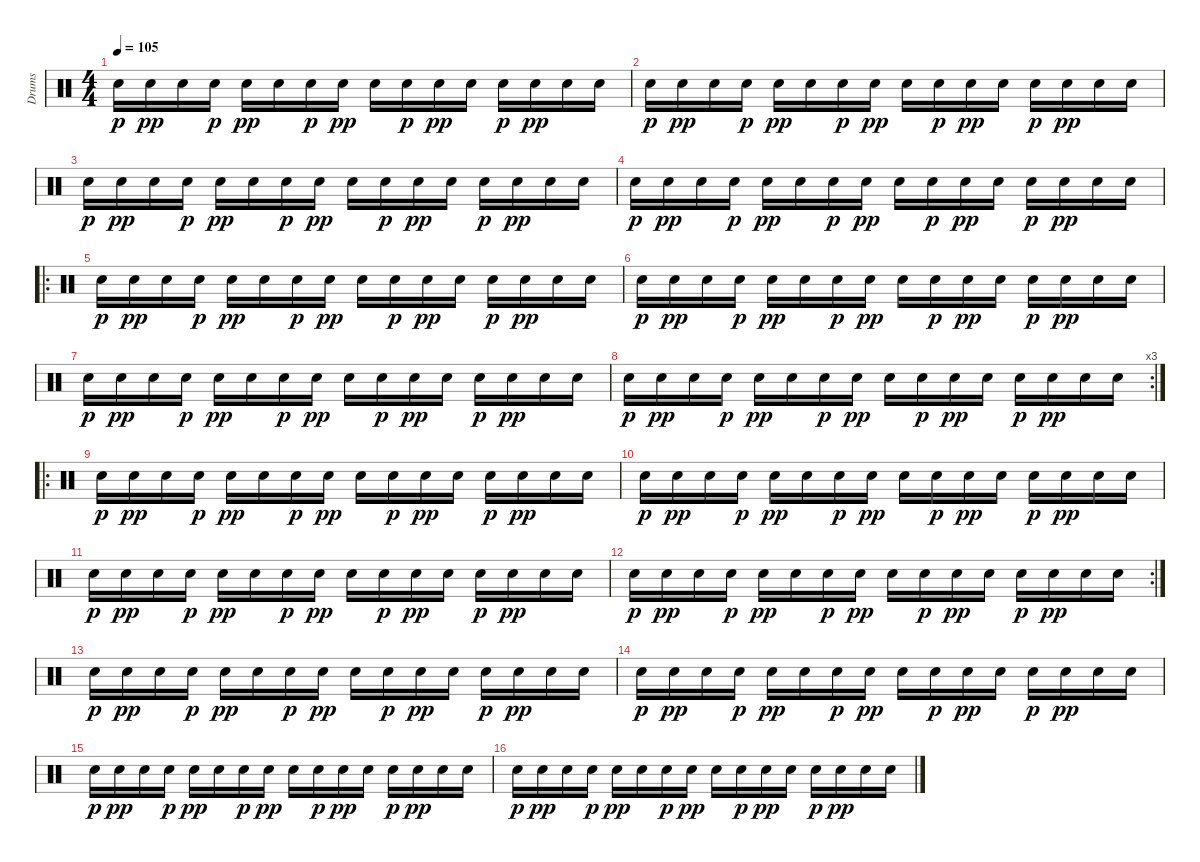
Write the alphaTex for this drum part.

\track ("Drums" "Drums") {instrument percussion}
\staff {score}
\articulation defaults
\ts (4 4)
\tempo 105
\clef neutral
\ks c "Electric Snare (hit)".16{dy p} "Electric Snare (hit)".16{dy pp} "Electric Snare (hit)".16 "Electric Snare (hit)".16{dy p} "Electric Snare (hit)".16{dy pp} "Electric Snare (hit)".16 "Electric Snare (hit)".16{dy p} "Electric Snare (hit)".16{dy pp} "Electric Snare (hit)".16 "Electric Snare (hit)".16{dy p} "Electric Snare (hit)".16{dy pp} "Electric Snare (hit)".16 "Electric Snare (hit)".16{dy p} "Electric Snare (hit)".16{dy pp} "Electric Snare (hit)".16 "Electric Snare (hit)".16
|
"Electric Snare (hit)".16{dy p} "Electric Snare (hit)".16{dy pp} "Electric Snare (hit)".16 "Electric Snare (hit)".16{dy p} "Electric Snare (hit)".16{dy pp} "Electric Snare (hit)".16 "Electric Snare (hit)".16{dy p} "Electric Snare (hit)".16{dy pp} "Electric Snare (hit)".16 "Electric Snare (hit)".16{dy p} "Electric Snare (hit)".16{dy pp} "Electric Snare (hit)".16 "Electric Snare (hit)".16{dy p} "Electric Snare (hit)".16{dy pp} "Electric Snare (hit)".16 "Electric Snare (hit)".16 |
"Electric Snare (hit)".16{dy p} "Electric Snare (hit)".16{dy pp} "Electric Snare (hit)".16 "Electric Snare (hit)".16{dy p} "Electric Snare (hit)".16{dy pp} "Electric Snare (hit)".16 "Electric Snare (hit)".16{dy p} "Electric Snare (hit)".16{dy pp} "Electric Snare (hit)".16 "Electric Snare (hit)".16{dy p} "Electric Snare (hit)".16{dy pp} "Electric Snare (hit)".16 "Electric Snare (hit)".16{dy p} "Electric Snare (hit)".16{dy pp} "Electric Snare (hit)".16 "Electric Snare (hit)".16 |
"Electric Snare (hit)".16{dy p} "Electric Snare (hit)".16{dy pp} "Electric Snare (hit)".16 "Electric Snare (hit)".16{dy p} "Electric Snare (hit)".16{dy pp} "Electric Snare (hit)".16 "Electric Snare (hit)".16{dy p} "Electric Snare (hit)".16{dy pp} "Electric Snare (hit)".16 "Electric Snare (hit)".16{dy p} "Electric Snare (hit)".16{dy pp} "Electric Snare (hit)".16 "Electric Snare (hit)".16{dy p} "Electric Snare (hit)".16{dy pp} "Electric Snare (hit)".16 "Electric Snare (hit)".16 |
\ro "Electric Snare (hit)".16{dy p} "Electric Snare (hit)".16{dy pp} "Electric Snare (hit)".16 "Electric Snare (hit)".16{dy p} "Electric Snare (hit)".16{dy pp} "Electric Snare (hit)".16 "Electric Snare (hit)".16{dy p} "Electric Snare (hit)".16{dy pp} "Electric Snare (hit)".16 "Electric Snare (hit)".16{dy p} "Electric Snare (hit)".16{dy pp} "Electric Snare (hit)".16 "Electric Snare (hit)".16{dy p} "Electric Snare (hit)".16{dy pp} "Electric Snare (hit)".16 "Electric Snare (hit)".16
|
"Electric Snare (hit)".16{dy p} "Electric Snare (hit)".16{dy pp} "Electric Snare (hit)".16 "Electric Snare (hit)".16{dy p} "Electric Snare (hit)".16{dy pp} "Electric Snare (hit)".16 "Electric Snare (hit)".16{dy p} "Electric Snare (hit)".16{dy pp} "Electric Snare (hit)".16 "Electric Snare (hit)".16{dy p} "Electric Snare (hit)".16{dy pp} "Electric Snare (hit)".16 "Electric Snare (hit)".16{dy p} "Electric Snare (hit)".16{dy pp} "Electric Snare (hit)".16 "Electric Snare (hit)".16 |
"Electric Snare (hit)".16{dy p} "Electric Snare (hit)".16{dy pp} "Electric Snare (hit)".16 "Electric Snare (hit)".16{dy p} "Electric Snare (hit)".16{dy pp} "Electric Snare (hit)".16 "Electric Snare (hit)".16{dy p} "Electric Snare (hit)".16{dy pp} "Electric Snare (hit)".16 "Electric Snare (hit)".16{dy p} "Electric Snare (hit)".16{dy pp} "Electric Snare (hit)".16 "Electric Snare (hit)".16{dy p} "Electric Snare (hit)".16{dy pp} "Electric Snare (hit)".16 "Electric Snare (hit)".16 |
\rc 3 "Electric Snare (hit)".16{dy p} "Electric Snare (hit)".16{dy pp} "Electric Snare (hit)".16 "Electric Snare (hit)".16{dy p} "Electric Snare (hit)".16{dy pp} "Electric Snare (hit)".16 "Electric Snare (hit)".16{dy p} "Electric Snare (hit)".16{dy pp} "Electric Snare (hit)".16 "Electric Snare (hit)".16{dy p} "Electric Snare (hit)".16{dy pp} "Electric Snare (hit)".16 "Electric Snare (hit)".16{dy p} "Electric Snare (hit)".16{dy pp} "Electric Snare (hit)".16 "Electric Snare (hit)".16
|
\ro "Electric Snare (hit)".16{dy p} "Electric Snare (hit)".16{dy pp} "Electric Snare (hit)".16 "Electric Snare (hit)".16{dy p} "Electric Snare (hit)".16{dy pp} "Electric Snare (hit)".16 "Electric Snare (hit)".16{dy p} "Electric Snare (hit)".16{dy pp} "Electric Snare (hit)".16 "Electric Snare (hit)".16{dy p} "Electric Snare (hit)".16{dy pp} "Electric Snare (hit)".16 "Electric Snare (hit)".16{dy p} "Electric Snare (hit)".16{dy pp} "Electric Snare (hit)".16 "Electric Snare (hit)".16
|
"Electric Snare (hit)".16{dy p} "Electric Snare (hit)".16{dy pp} "Electric Snare (hit)".16 "Electric Snare (hit)".16{dy p} "Electric Snare (hit)".16{dy pp} "Electric Snare (hit)".16 "Electric Snare (hit)".16{dy p} "Electric Snare (hit)".16{dy pp} "Electric Snare (hit)".16 "Electric Snare (hit)".16{dy p} "Electric Snare (hit)".16{dy pp} "Electric Snare (hit)".16 "Electric Snare (hit)".16{dy p} "Electric Snare (hit)".16{dy pp} "Electric Snare (hit)".16 "Electric Snare (hit)".16 |
"Electric Snare (hit)".16{dy p} "Electric Snare (hit)".16{dy pp} "Electric Snare (hit)".16 "Electric Snare (hit)".16{dy p} "Electric Snare (hit)".16{dy pp} "Electric Snare (hit)".16 "Electric Snare (hit)".16{dy p} "Electric Snare (hit)".16{dy pp} "Electric Snare (hit)".16 "Electric Snare (hit)".16{dy p} "Electric Snare (hit)".16{dy pp} "Electric Snare (hit)".16 "Electric Snare (hit)".16{dy p} "Electric Snare (hit)".16{dy pp} "Electric Snare (hit)".16 "Electric Snare (hit)".16 |
\rc 2 "Electric Snare (hit)".16{dy p} "Electric Snare (hit)".16{dy pp} "Electric Snare (hit)".16 "Electric Snare (hit)".16{dy p} "Electric Snare (hit)".16{dy pp} "Electric Snare (hit)".16 "Electric Snare (hit)".16{dy p} "Electric Snare (hit)".16{dy pp} "Electric Snare (hit)".16 "Electric Snare (hit)".16{dy p} "Electric Snare (hit)".16{dy pp} "Electric Snare (hit)".16 "Electric Snare (hit)".16{dy p} "Electric Snare (hit)".16{dy pp} "Electric Snare (hit)".16 "Electric Snare (hit)".16
|
"Electric Snare (hit)".16{dy p} "Electric Snare (hit)".16{dy pp} "Electric Snare (hit)".16 "Electric Snare (hit)".16{dy p} "Electric Snare (hit)".16{dy pp} "Electric Snare (hit)".16 "Electric Snare (hit)".16{dy p} "Electric Snare (hit)".16{dy pp} "Electric Snare (hit)".16 "Electric Snare (hit)".16{dy p} "Electric Snare (hit)".16{dy pp} "Electric Snare (hit)".16 "Electric Snare (hit)".16{dy p} "Electric Snare (hit)".16{dy pp} "Electric Snare (hit)".16 "Electric Snare (hit)".16 |
"Electric Snare (hit)".16{dy p} "Electric Snare (hit)".16{dy pp} "Electric Snare (hit)".16 "Electric Snare (hit)".16{dy p} "Electric Snare (hit)".16{dy pp} "Electric Snare (hit)".16 "Electric Snare (hit)".16{dy p} "Electric Snare (hit)".16{dy pp} "Electric Snare (hit)".16 "Electric Snare (hit)".16{dy p} "Electric Snare (hit)".16{dy pp} "Electric Snare (hit)".16 "Electric Snare (hit)".16{dy p} "Electric Snare (hit)".16{dy pp} "Electric Snare (hit)".16 "Electric Snare (hit)".16 |
"Electric Snare (hit)".16{dy p} "Electric Snare (hit)".16{dy pp} "Electric Snare (hit)".16 "Electric Snare (hit)".16{dy p} "Electric Snare (hit)".16{dy pp} "Electric Snare (hit)".16 "Electric Snare (hit)".16{dy p} "Electric Snare (hit)".16{dy pp} "Electric Snare (hit)".16 "Electric Snare (hit)".16{dy p} "Electric Snare (hit)".16{dy pp} "Electric Snare (hit)".16 "Electric Snare (hit)".16{dy p} "Electric Snare (hit)".16{dy pp} "Electric Snare (hit)".16 "Electric Snare (hit)".16 |
"Electric Snare (hit)".16{dy p} "Electric Snare (hit)".16{dy pp} "Electric Snare (hit)".16 "Electric Snare (hit)".16{dy p} "Electric Snare (hit)".16{dy pp} "Electric Snare (hit)".16 "Electric Snare (hit)".16{dy p} "Electric Snare (hit)".16{dy pp} "Electric Snare (hit)".16 "Electric Snare (hit)".16{dy p} "Electric Snare (hit)".16{dy pp} "Electric Snare (hit)".16 "Electric Snare (hit)".16{dy p} "Electric Snare (hit)".16{dy pp} "Electric Snare (hit)".16 "Electric Snare (hit)".16
